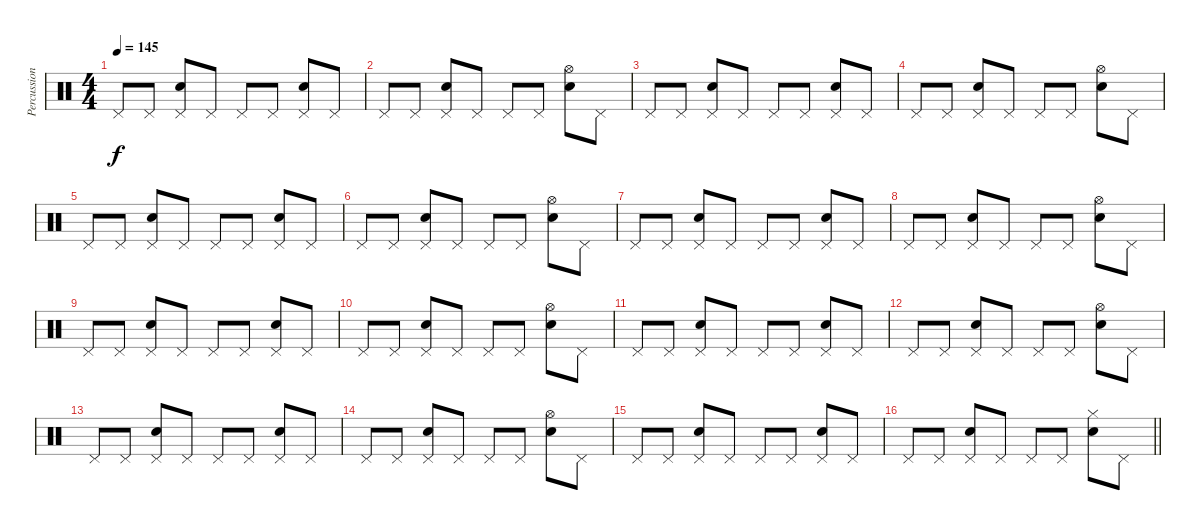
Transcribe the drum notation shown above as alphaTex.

\track ("Percussion" "Percussion") {instrument percussion}
\staff {score}
\articulation defaults
\ts (4 4)
\tempo 145
\clef neutral
\ks c "Pedal Hi-Hat (hit)".8{dy f} "Pedal Hi-Hat (hit)".8
("Pedal Hi-Hat (hit)" "Electric Snare (hit)").8 "Pedal Hi-Hat (hit)".8 "Pedal Hi-Hat (hit)".8 "Pedal Hi-Hat (hit)".8 ("Pedal Hi-Hat (hit)" "Electric Snare (hit)").8 "Pedal Hi-Hat (hit)".8 |
"Pedal Hi-Hat (hit)".8 "Pedal Hi-Hat (hit)".8 ("Pedal Hi-Hat (hit)" "Electric Snare (hit)").8 "Pedal Hi-Hat (hit)".8 "Pedal Hi-Hat (hit)".8 "Pedal Hi-Hat (hit)".8 ("Hi-Hat (open)" "Electric Snare (hit)").8 "Pedal Hi-Hat (hit)".8 |
"Pedal Hi-Hat (hit)".8 "Pedal Hi-Hat (hit)".8 ("Pedal Hi-Hat (hit)" "Electric Snare (hit)").8 "Pedal Hi-Hat (hit)".8 "Pedal Hi-Hat (hit)".8 "Pedal Hi-Hat (hit)".8 ("Pedal Hi-Hat (hit)" "Electric Snare (hit)").8 "Pedal Hi-Hat (hit)".8 |
"Pedal Hi-Hat (hit)".8 "Pedal Hi-Hat (hit)".8 ("Pedal Hi-Hat (hit)" "Electric Snare (hit)").8 "Pedal Hi-Hat (hit)".8 "Pedal Hi-Hat (hit)".8 "Pedal Hi-Hat (hit)".8 ("Hi-Hat (open)" "Electric Snare (hit)").8 "Pedal Hi-Hat (hit)".8 |
"Pedal Hi-Hat (hit)".8 "Pedal Hi-Hat (hit)".8 ("Pedal Hi-Hat (hit)" "Electric Snare (hit)").8 "Pedal Hi-Hat (hit)".8 "Pedal Hi-Hat (hit)".8 "Pedal Hi-Hat (hit)".8 ("Pedal Hi-Hat (hit)" "Electric Snare (hit)").8 "Pedal Hi-Hat (hit)".8 |
"Pedal Hi-Hat (hit)".8 "Pedal Hi-Hat (hit)".8 ("Pedal Hi-Hat (hit)" "Electric Snare (hit)").8 "Pedal Hi-Hat (hit)".8 "Pedal Hi-Hat (hit)".8 "Pedal Hi-Hat (hit)".8 ("Hi-Hat (open)" "Electric Snare (hit)").8 "Pedal Hi-Hat (hit)".8 |
"Pedal Hi-Hat (hit)".8 "Pedal Hi-Hat (hit)".8 ("Pedal Hi-Hat (hit)" "Electric Snare (hit)").8 "Pedal Hi-Hat (hit)".8 "Pedal Hi-Hat (hit)".8 "Pedal Hi-Hat (hit)".8 ("Pedal Hi-Hat (hit)" "Electric Snare (hit)").8 "Pedal Hi-Hat (hit)".8 |
"Pedal Hi-Hat (hit)".8 "Pedal Hi-Hat (hit)".8 ("Pedal Hi-Hat (hit)" "Electric Snare (hit)").8 "Pedal Hi-Hat (hit)".8 "Pedal Hi-Hat (hit)".8 "Pedal Hi-Hat (hit)".8 ("Hi-Hat (open)" "Electric Snare (hit)").8 "Pedal Hi-Hat (hit)".8 |
"Pedal Hi-Hat (hit)".8 "Pedal Hi-Hat (hit)".8 ("Pedal Hi-Hat (hit)" "Electric Snare (hit)").8 "Pedal Hi-Hat (hit)".8 "Pedal Hi-Hat (hit)".8 "Pedal Hi-Hat (hit)".8 ("Pedal Hi-Hat (hit)" "Electric Snare (hit)").8 "Pedal Hi-Hat (hit)".8 |
"Pedal Hi-Hat (hit)".8 "Pedal Hi-Hat (hit)".8 ("Pedal Hi-Hat (hit)" "Electric Snare (hit)").8 "Pedal Hi-Hat (hit)".8 "Pedal Hi-Hat (hit)".8 "Pedal Hi-Hat (hit)".8 ("Hi-Hat (open)" "Electric Snare (hit)").8 "Pedal Hi-Hat (hit)".8 |
"Pedal Hi-Hat (hit)".8 "Pedal Hi-Hat (hit)".8 ("Pedal Hi-Hat (hit)" "Electric Snare (hit)").8 "Pedal Hi-Hat (hit)".8 "Pedal Hi-Hat (hit)".8 "Pedal Hi-Hat (hit)".8 ("Pedal Hi-Hat (hit)" "Electric Snare (hit)").8 "Pedal Hi-Hat (hit)".8 |
"Pedal Hi-Hat (hit)".8 "Pedal Hi-Hat (hit)".8 ("Pedal Hi-Hat (hit)" "Electric Snare (hit)").8 "Pedal Hi-Hat (hit)".8 "Pedal Hi-Hat (hit)".8 "Pedal Hi-Hat (hit)".8 ("Hi-Hat (open)" "Electric Snare (hit)").8 "Pedal Hi-Hat (hit)".8 |
"Pedal Hi-Hat (hit)".8 "Pedal Hi-Hat (hit)".8 ("Pedal Hi-Hat (hit)" "Electric Snare (hit)").8 "Pedal Hi-Hat (hit)".8 "Pedal Hi-Hat (hit)".8 "Pedal Hi-Hat (hit)".8 ("Pedal Hi-Hat (hit)" "Electric Snare (hit)").8 "Pedal Hi-Hat (hit)".8 |
"Pedal Hi-Hat (hit)".8 "Pedal Hi-Hat (hit)".8 ("Pedal Hi-Hat (hit)" "Electric Snare (hit)").8 "Pedal Hi-Hat (hit)".8 "Pedal Hi-Hat (hit)".8 "Pedal Hi-Hat (hit)".8 ("Hi-Hat (open)" "Electric Snare (hit)").8 "Pedal Hi-Hat (hit)".8 |
"Pedal Hi-Hat (hit)".8 "Pedal Hi-Hat (hit)".8 ("Pedal Hi-Hat (hit)" "Electric Snare (hit)").8 "Pedal Hi-Hat (hit)".8 "Pedal Hi-Hat (hit)".8 "Pedal Hi-Hat (hit)".8 ("Pedal Hi-Hat (hit)" "Electric Snare (hit)").8 "Pedal Hi-Hat (hit)".8 |
\barLineRight lightlight "Pedal Hi-Hat (hit)".8 "Pedal Hi-Hat (hit)".8
("Pedal Hi-Hat (hit)" "Electric Snare (hit)").8 "Pedal Hi-Hat (hit)".8 "Pedal Hi-Hat (hit)".8 "Pedal Hi-Hat (hit)".8 ("Hi-Hat (closed)" "Electric Snare (hit)").8 "Pedal Hi-Hat (hit)".8
